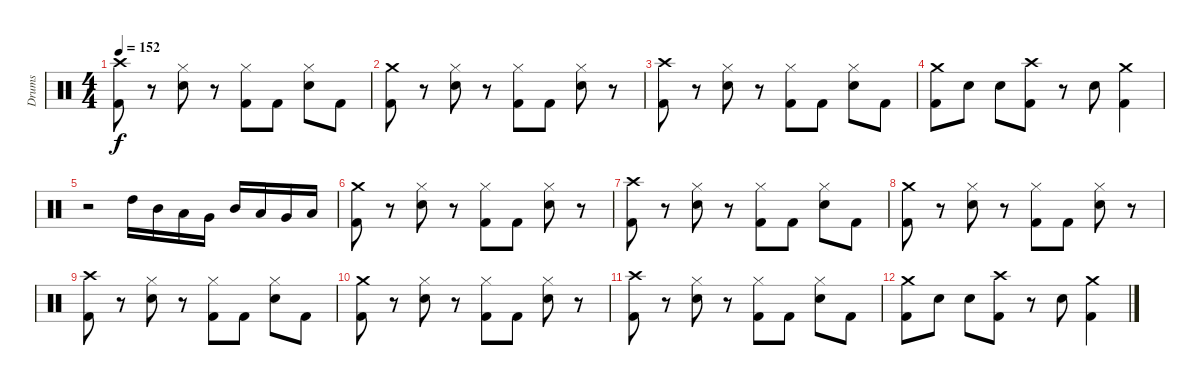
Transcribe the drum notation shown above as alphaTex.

\track ("Drums" "Drums") {instrument percussion}
\staff {score}
\articulation defaults
\ts (4 4)
\tempo 152
\clef neutral
\ks c
("Crash high (hit)" "Kick (hit) 2").8{dy f} r.8 ("Hi-Hat (closed)" "Electric Snare (hit)").8 r.8 ("Hi-Hat (closed)" "Kick (hit) 2").8 "Kick (hit) 2".8 ("Hi-Hat (closed)" "Electric Snare (hit)").8 "Kick (hit) 2".8 |
("Crash medium (hit)" "Kick (hit) 2").8 r.8 ("Hi-Hat (closed)" "Electric Snare (hit)").8 r.8 ("Hi-Hat (closed)" "Kick (hit) 2").8 "Kick (hit) 2".8 ("Hi-Hat (closed)" "Electric Snare (hit)").8 r.8 |
("Crash high (hit)" "Kick (hit) 2").8 r.8 ("Hi-Hat (closed)" "Electric Snare (hit)").8 r.8 ("Hi-Hat (closed)" "Kick (hit) 2").8 "Kick (hit) 2".8 ("Hi-Hat (closed)" "Electric Snare (hit)").8 "Kick (hit) 2".8 |
("Crash medium (hit)" "Kick (hit) 2").8 "Electric Snare (hit)".8 "Electric Snare (hit)".8 ("Crash high (hit)" "Kick (hit) 2").8 r.8 "Electric Snare (hit)".8 ("Crash medium (hit)" "Kick (hit) 2").4 |
r.2 "High Tom (hit)".16 "Mid Tom (hit)".16 "Low Tom (hit)".16 "Very Low Tom (hit)".16 "Mid Tom (hit)".16 "Low Tom (hit)".16 "Very Low Tom (hit)".16 "Low Floor Tom (hit)".16 |
("Crash medium (hit)" "Kick (hit) 2").8 r.8 ("Hi-Hat (closed)" "Electric Snare (hit)").8 r.8 ("Hi-Hat (closed)" "Kick (hit) 2").8 "Kick (hit) 2".8 ("Hi-Hat (closed)" "Electric Snare (hit)").8 r.8 |
("Crash high (hit)" "Kick (hit) 2").8 r.8 ("Hi-Hat (closed)" "Electric Snare (hit)").8 r.8 ("Hi-Hat (closed)" "Kick (hit) 2").8 "Kick (hit) 2".8 ("Hi-Hat (closed)" "Electric Snare (hit)").8 "Kick (hit) 2".8 |
("Crash medium (hit)" "Kick (hit) 2").8 r.8 ("Hi-Hat (closed)" "Electric Snare (hit)").8 r.8 ("Hi-Hat (closed)" "Kick (hit) 2").8 "Kick (hit) 2".8 ("Hi-Hat (closed)" "Electric Snare (hit)").8 r.8 |
("Crash high (hit)" "Kick (hit) 2").8 r.8 ("Hi-Hat (closed)" "Electric Snare (hit)").8 r.8 ("Hi-Hat (closed)" "Kick (hit) 2").8 "Kick (hit) 2".8 ("Hi-Hat (closed)" "Electric Snare (hit)").8 "Kick (hit) 2".8 |
("Crash medium (hit)" "Kick (hit) 2").8 r.8 ("Hi-Hat (closed)" "Electric Snare (hit)").8 r.8 ("Hi-Hat (closed)" "Kick (hit) 2").8 "Kick (hit) 2".8 ("Hi-Hat (closed)" "Electric Snare (hit)").8 r.8 |
("Crash high (hit)" "Kick (hit) 2").8 r.8 ("Hi-Hat (closed)" "Electric Snare (hit)").8 r.8 ("Hi-Hat (closed)" "Kick (hit) 2").8 "Kick (hit) 2".8 ("Hi-Hat (closed)" "Electric Snare (hit)").8 "Kick (hit) 2".8 |
("Crash medium (hit)" "Kick (hit) 2").8 "Electric Snare (hit)".8 "Electric Snare (hit)".8 ("Crash high (hit)" "Kick (hit) 2").8 r.8 "Electric Snare (hit)".8 ("Crash medium (hit)" "Kick (hit) 2").4
